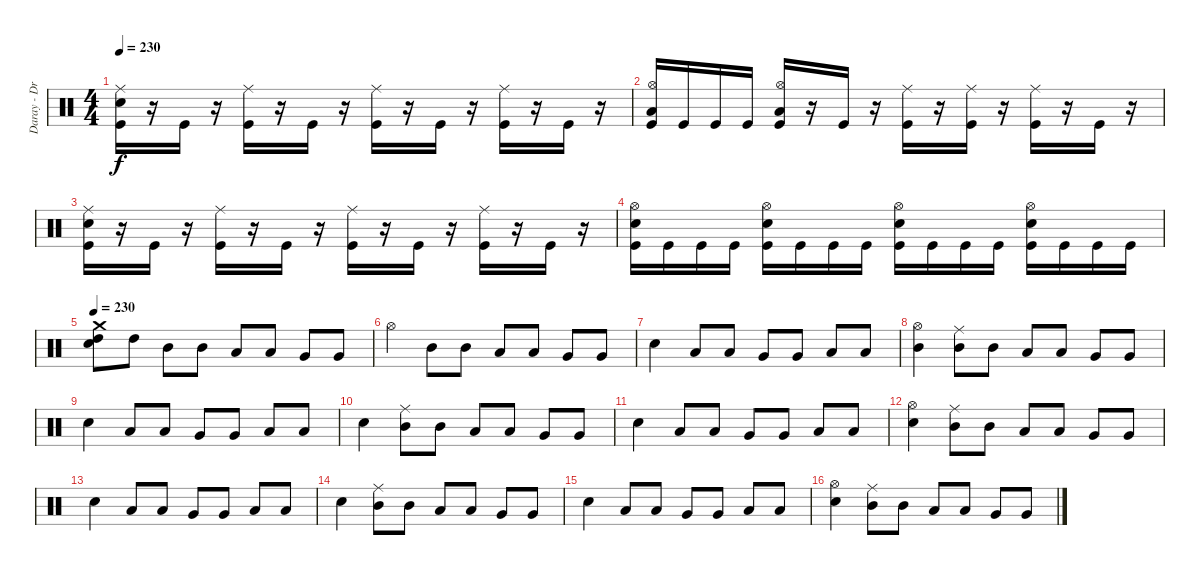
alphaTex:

\track ("Daray - Drums" "Daray - Dr") {instrument percussion}
\staff {score}
\articulation defaults
\ts (4 4)
\tempo 230
\clef neutral
\ks c
("Ride (middle)" "Electric Snare (hit)" "Kick (hit)").16{dy f} r.16 "Kick (hit)".16 r.16 ("Ride (middle)" "Kick (hit)").16 r.16 "Kick (hit)".16 r.16 ("Ride (middle)" "Kick (hit)").16 r.16 "Kick (hit)".16 r.16 ("Ride (middle)" "Kick (hit)").16 r.16 "Kick (hit)".16 r.16 |
("Hi-Hat (open)" "Low Floor Tom (hit)" "Kick (hit)").16 "Kick (hit)".16 "Kick (hit)".16 "Kick (hit)".16 ("Hi-Hat (open)" "Low Floor Tom (hit)" "Kick (hit)").16 r.16 "Kick (hit)".16 r.16 ("Ride (middle)" "Kick (hit)").16 r.16 ("Ride (middle)" "Kick (hit)").16 r.16 ("Ride (middle)" "Kick (hit)").16 r.16 "Kick (hit)".16 r.16 |
("Ride (middle)" "Electric Snare (hit)" "Kick (hit)").16 r.16 "Kick (hit)".16 r.16 ("Ride (middle)" "Kick (hit)").16 r.16 "Kick (hit)".16 r.16 ("Ride (middle)" "Kick (hit)").16 r.16 "Kick (hit)".16 r.16 ("Ride (middle)" "Kick (hit)").16 r.16 "Kick (hit)".16 r.16 |
("Hi-Hat (open)" "Electric Snare (hit)" "Kick (hit)").16 "Kick (hit)".16 "Kick (hit)".16 "Kick (hit)".16 ("Hi-Hat (open)" "Electric Snare (hit)" "Kick (hit)").16 "Kick (hit)".16 "Kick (hit)".16 "Kick (hit)".16 ("Hi-Hat (open)" "Electric Snare (hit)" "Kick (hit)").16 "Kick (hit)".16 "Kick (hit)".16 "Kick (hit)".16 ("Hi-Hat (open)" "Electric Snare (hit)" "Kick (hit)").16 "Kick (hit)".16 "Kick (hit)".16 "Kick (hit)".16 |
\tempo 230
("Crash medium (hit)" "Electric Snare (hit)" "High Tom (hit)").8 "High Tom (hit)".8 "Mid Tom (hit)".8 "Mid Tom (hit)".8 "Low Tom (hit)".8 "Low Tom (hit)".8 "Very Low Tom (hit)".8 "Very Low Tom (hit)".8 |
"Hi-Hat (open)".4 "Mid Tom (hit)".8 "Mid Tom (hit)".8 "Low Tom (hit)".8 "Low Tom (hit)".8 "Very Low Tom (hit)".8 "Very Low Tom (hit)".8 |
"Electric Snare (hit)".4 "Low Tom (hit)".8 "Low Tom (hit)".8 "Very Low Tom (hit)".8 "Very Low Tom (hit)".8 "Low Floor Tom (hit)".8 "Low Floor Tom (hit)".8 |
("Hi-Hat (open)" "Mid Tom (hit)").4 ("Ride (middle)" "Mid Tom (hit)").8 "Mid Tom (hit)".8 "Low Tom (hit)".8 "Low Tom (hit)".8 "Very Low Tom (hit)".8 "Very Low Tom (hit)".8 |
"Electric Snare (hit)".4 "Low Tom (hit)".8 "Low Tom (hit)".8 "Very Low Tom (hit)".8 "Very Low Tom (hit)".8 "Low Floor Tom (hit)".8 "Low Floor Tom (hit)".8 |
"Electric Snare (hit)".4 ("Ride (middle)" "Mid Tom (hit)").8 "Mid Tom (hit)".8 "Low Tom (hit)".8 "Low Tom (hit)".8 "Very Low Tom (hit)".8 "Very Low Tom (hit)".8 |
"Electric Snare (hit)".4 "Low Tom (hit)".8 "Low Tom (hit)".8 "Very Low Tom (hit)".8 "Very Low Tom (hit)".8 "Low Floor Tom (hit)".8 "Low Floor Tom (hit)".8 |
("Hi-Hat (open)" "Electric Snare (hit)").4 ("Ride (middle)" "Mid Tom (hit)").8 "Mid Tom (hit)".8 "Low Tom (hit)".8 "Low Tom (hit)".8 "Very Low Tom (hit)".8 "Very Low Tom (hit)".8 |
"Electric Snare (hit)".4 "Low Tom (hit)".8 "Low Tom (hit)".8 "Very Low Tom (hit)".8 "Very Low Tom (hit)".8 "Low Floor Tom (hit)".8 "Low Floor Tom (hit)".8 |
"Electric Snare (hit)".4 ("Ride (middle)" "Mid Tom (hit)").8 "Mid Tom (hit)".8 "Low Tom (hit)".8 "Low Tom (hit)".8 "Very Low Tom (hit)".8 "Very Low Tom (hit)".8 |
"Electric Snare (hit)".4 "Low Tom (hit)".8 "Low Tom (hit)".8 "Very Low Tom (hit)".8 "Very Low Tom (hit)".8 "Low Floor Tom (hit)".8 "Low Floor Tom (hit)".8 |
("Hi-Hat (open)" "Electric Snare (hit)").4 ("Ride (middle)" "Mid Tom (hit)").8 "Mid Tom (hit)".8 "Low Tom (hit)".8 "Low Tom (hit)".8 "Very Low Tom (hit)".8 "Very Low Tom (hit)".8
